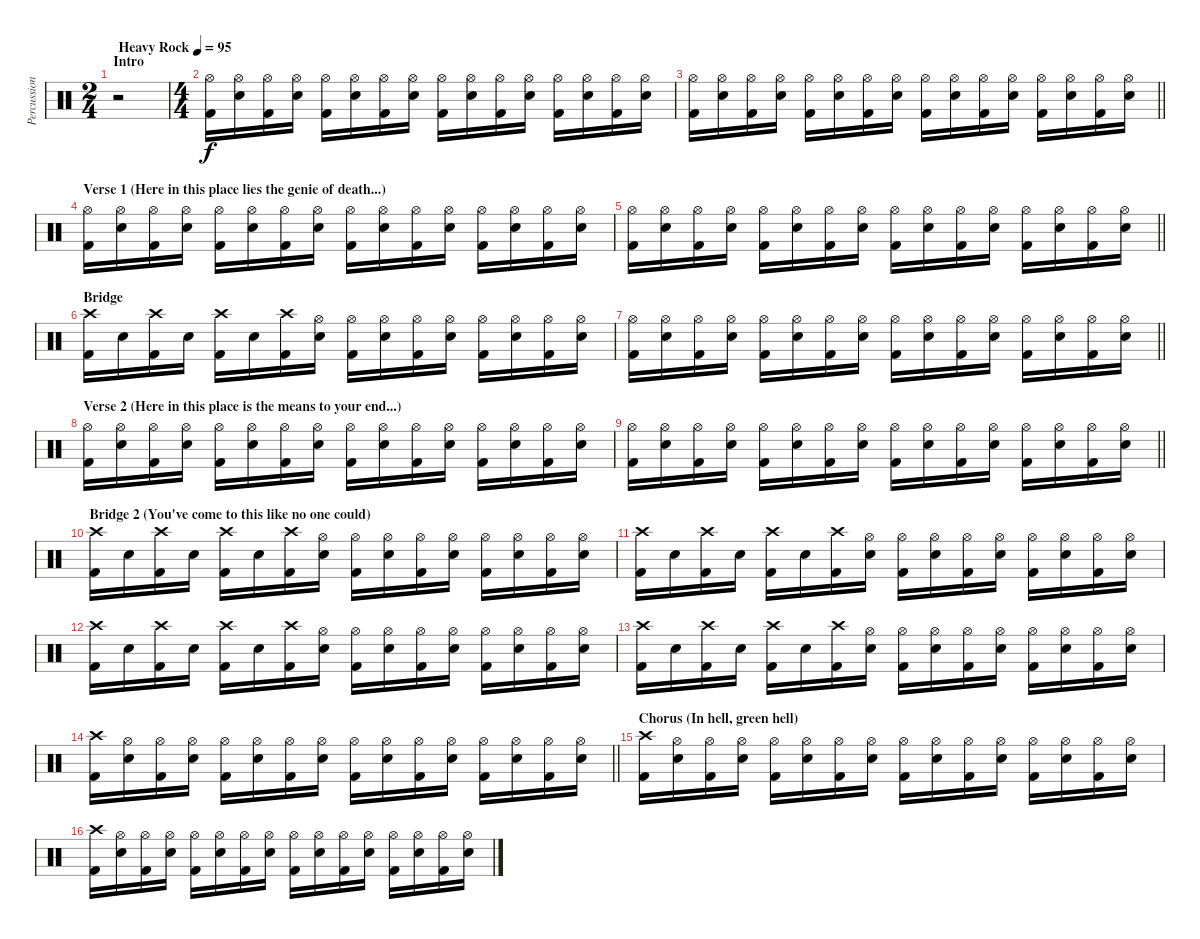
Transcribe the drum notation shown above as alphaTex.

\track ("Percussion" "Percussion") {instrument percussion}
\staff {score}
\articulation defaults
\ts (2 4)
\section ("" "Intro")
\tempo (95 "Heavy Rock")
\clef neutral
\ks c
r.2{dy f} |
\ts (4 4)
("Hi-Hat (open)" "Kick (hit) 2").16 ("Hi-Hat (open)" "Electric Snare (hit)").16 ("Hi-Hat (open)" "Kick (hit) 2").16 ("Hi-Hat (open)" "Electric Snare (hit)").16 ("Hi-Hat (open)" "Kick (hit) 2").16 ("Hi-Hat (open)" "Electric Snare (hit)").16 ("Hi-Hat (open)" "Kick (hit) 2").16 ("Hi-Hat (open)" "Electric Snare (hit)").16 ("Hi-Hat (open)" "Kick (hit) 2").16 ("Hi-Hat (open)" "Electric Snare (hit)").16 ("Hi-Hat (open)" "Kick (hit) 2").16 ("Hi-Hat (open)" "Electric Snare (hit)").16 ("Hi-Hat (open)" "Kick (hit) 2").16 ("Hi-Hat (open)" "Electric Snare (hit)").16 ("Hi-Hat (open)" "Kick (hit) 2").16 ("Hi-Hat (open)" "Electric Snare (hit)").16 |
\barLineRight lightlight
("Hi-Hat (open)" "Kick (hit) 2").16 ("Hi-Hat (open)" "Electric Snare (hit)").16 ("Hi-Hat (open)" "Kick (hit) 2").16 ("Hi-Hat (open)" "Electric Snare (hit)").16 ("Hi-Hat (open)" "Kick (hit) 2").16 ("Hi-Hat (open)" "Electric Snare (hit)").16 ("Hi-Hat (open)" "Kick (hit) 2").16 ("Hi-Hat (open)" "Electric Snare (hit)").16 ("Hi-Hat (open)" "Kick (hit) 2").16 ("Hi-Hat (open)" "Electric Snare (hit)").16 ("Hi-Hat (open)" "Kick (hit) 2").16 ("Hi-Hat (open)" "Electric Snare (hit)").16 ("Hi-Hat (open)" "Kick (hit) 2").16 ("Hi-Hat (open)" "Electric Snare (hit)").16 ("Hi-Hat (open)" "Kick (hit) 2").16 ("Hi-Hat (open)" "Electric Snare (hit)").16 |
\section ("" "Verse 1 (Here in this place lies the genie of death...)")
("Hi-Hat (open)" "Kick (hit) 2").16 ("Hi-Hat (open)" "Electric Snare (hit)").16 ("Hi-Hat (open)" "Kick (hit) 2").16 ("Hi-Hat (open)" "Electric Snare (hit)").16 ("Hi-Hat (open)" "Kick (hit) 2").16 ("Hi-Hat (open)" "Electric Snare (hit)").16 ("Hi-Hat (open)" "Kick (hit) 2").16 ("Hi-Hat (open)" "Electric Snare (hit)").16 ("Hi-Hat (open)" "Kick (hit) 2").16 ("Hi-Hat (open)" "Electric Snare (hit)").16 ("Hi-Hat (open)" "Kick (hit) 2").16 ("Hi-Hat (open)" "Electric Snare (hit)").16 ("Hi-Hat (open)" "Kick (hit) 2").16 ("Hi-Hat (open)" "Electric Snare (hit)").16 ("Hi-Hat (open)" "Kick (hit) 2").16 ("Hi-Hat (open)" "Electric Snare (hit)").16 |
\barLineRight lightlight
("Hi-Hat (open)" "Kick (hit) 2").16 ("Hi-Hat (open)" "Electric Snare (hit)").16 ("Hi-Hat (open)" "Kick (hit) 2").16 ("Hi-Hat (open)" "Electric Snare (hit)").16 ("Hi-Hat (open)" "Kick (hit) 2").16 ("Hi-Hat (open)" "Electric Snare (hit)").16 ("Hi-Hat (open)" "Kick (hit) 2").16 ("Hi-Hat (open)" "Electric Snare (hit)").16 ("Hi-Hat (open)" "Kick (hit) 2").16 ("Hi-Hat (open)" "Electric Snare (hit)").16 ("Hi-Hat (open)" "Kick (hit) 2").16 ("Hi-Hat (open)" "Electric Snare (hit)").16 ("Hi-Hat (open)" "Kick (hit) 2").16 ("Hi-Hat (open)" "Electric Snare (hit)").16 ("Hi-Hat (open)" "Kick (hit) 2").16 ("Hi-Hat (open)" "Electric Snare (hit)").16 |
\section ("" "Bridge")
("Crash high (hit)" "Kick (hit) 2").16 "Electric Snare (hit)".16 ("Crash high (hit)" "Kick (hit) 2").16 "Electric Snare (hit)".16 ("Crash high (hit)" "Kick (hit) 2").16 "Electric Snare (hit)".16 ("Crash high (hit)" "Kick (hit) 2").16 ("Hi-Hat (open)" "Electric Snare (hit)").16 ("Hi-Hat (open)" "Kick (hit) 2").16 ("Hi-Hat (open)" "Electric Snare (hit)").16 ("Hi-Hat (open)" "Kick (hit) 2").16 ("Hi-Hat (open)" "Electric Snare (hit)").16 ("Hi-Hat (open)" "Kick (hit) 2").16 ("Hi-Hat (open)" "Electric Snare (hit)").16 ("Hi-Hat (open)" "Kick (hit) 2").16 ("Hi-Hat (open)" "Electric Snare (hit)").16 |
\barLineRight lightlight
("Hi-Hat (open)" "Kick (hit) 2").16 ("Hi-Hat (open)" "Electric Snare (hit)").16 ("Hi-Hat (open)" "Kick (hit) 2").16 ("Hi-Hat (open)" "Electric Snare (hit)").16 ("Hi-Hat (open)" "Kick (hit) 2").16 ("Hi-Hat (open)" "Electric Snare (hit)").16 ("Hi-Hat (open)" "Kick (hit) 2").16 ("Hi-Hat (open)" "Electric Snare (hit)").16 ("Hi-Hat (open)" "Kick (hit) 2").16 ("Hi-Hat (open)" "Electric Snare (hit)").16 ("Hi-Hat (open)" "Kick (hit) 2").16 ("Hi-Hat (open)" "Electric Snare (hit)").16 ("Hi-Hat (open)" "Kick (hit) 2").16 ("Hi-Hat (open)" "Electric Snare (hit)").16 ("Hi-Hat (open)" "Kick (hit) 2").16 ("Hi-Hat (open)" "Electric Snare (hit)").16 |
\section ("" "Verse 2 (Here in this place is the means to your end...)")
("Hi-Hat (open)" "Kick (hit) 2").16 ("Hi-Hat (open)" "Electric Snare (hit)").16 ("Hi-Hat (open)" "Kick (hit) 2").16 ("Hi-Hat (open)" "Electric Snare (hit)").16 ("Hi-Hat (open)" "Kick (hit) 2").16 ("Hi-Hat (open)" "Electric Snare (hit)").16 ("Hi-Hat (open)" "Kick (hit) 2").16 ("Hi-Hat (open)" "Electric Snare (hit)").16 ("Hi-Hat (open)" "Kick (hit) 2").16 ("Hi-Hat (open)" "Electric Snare (hit)").16 ("Hi-Hat (open)" "Kick (hit) 2").16 ("Hi-Hat (open)" "Electric Snare (hit)").16 ("Hi-Hat (open)" "Kick (hit) 2").16 ("Hi-Hat (open)" "Electric Snare (hit)").16 ("Hi-Hat (open)" "Kick (hit) 2").16 ("Hi-Hat (open)" "Electric Snare (hit)").16 |
\barLineRight lightlight
("Hi-Hat (open)" "Kick (hit) 2").16 ("Hi-Hat (open)" "Electric Snare (hit)").16 ("Hi-Hat (open)" "Kick (hit) 2").16 ("Hi-Hat (open)" "Electric Snare (hit)").16 ("Hi-Hat (open)" "Kick (hit) 2").16 ("Hi-Hat (open)" "Electric Snare (hit)").16 ("Hi-Hat (open)" "Kick (hit) 2").16 ("Hi-Hat (open)" "Electric Snare (hit)").16 ("Hi-Hat (open)" "Kick (hit) 2").16 ("Hi-Hat (open)" "Electric Snare (hit)").16 ("Hi-Hat (open)" "Kick (hit) 2").16 ("Hi-Hat (open)" "Electric Snare (hit)").16 ("Hi-Hat (open)" "Kick (hit) 2").16 ("Hi-Hat (open)" "Electric Snare (hit)").16 ("Hi-Hat (open)" "Kick (hit) 2").16 ("Hi-Hat (open)" "Electric Snare (hit)").16 |
\section ("" "Bridge 2 (You've come to this like no one could)")
("Crash high (hit)" "Kick (hit) 2").16 "Electric Snare (hit)".16 ("Crash high (hit)" "Kick (hit) 2").16 "Electric Snare (hit)".16 ("Crash high (hit)" "Kick (hit) 2").16 "Electric Snare (hit)".16 ("Crash high (hit)" "Kick (hit) 2").16 ("Hi-Hat (open)" "Electric Snare (hit)").16 ("Hi-Hat (open)" "Kick (hit) 2").16 ("Hi-Hat (open)" "Electric Snare (hit)").16 ("Hi-Hat (open)" "Kick (hit) 2").16 ("Hi-Hat (open)" "Electric Snare (hit)").16 ("Hi-Hat (open)" "Kick (hit) 2").16 ("Hi-Hat (open)" "Electric Snare (hit)").16 ("Hi-Hat (open)" "Kick (hit) 2").16 ("Hi-Hat (open)" "Electric Snare (hit)").16 |
("Crash high (hit)" "Kick (hit) 2").16 "Electric Snare (hit)".16 ("Crash high (hit)" "Kick (hit) 2").16 "Electric Snare (hit)".16 ("Crash high (hit)" "Kick (hit) 2").16 "Electric Snare (hit)".16 ("Crash high (hit)" "Kick (hit) 2").16 ("Hi-Hat (open)" "Electric Snare (hit)").16 ("Hi-Hat (open)" "Kick (hit) 2").16 ("Hi-Hat (open)" "Electric Snare (hit)").16 ("Hi-Hat (open)" "Kick (hit) 2").16 ("Hi-Hat (open)" "Electric Snare (hit)").16 ("Hi-Hat (open)" "Kick (hit) 2").16 ("Hi-Hat (open)" "Electric Snare (hit)").16 ("Hi-Hat (open)" "Kick (hit) 2").16 ("Hi-Hat (open)" "Electric Snare (hit)").16 |
("Crash high (hit)" "Kick (hit) 2").16 "Electric Snare (hit)".16 ("Crash high (hit)" "Kick (hit) 2").16 "Electric Snare (hit)".16 ("Crash high (hit)" "Kick (hit) 2").16 "Electric Snare (hit)".16 ("Crash high (hit)" "Kick (hit) 2").16 ("Hi-Hat (open)" "Electric Snare (hit)").16 ("Hi-Hat (open)" "Kick (hit) 2").16 ("Hi-Hat (open)" "Electric Snare (hit)").16 ("Hi-Hat (open)" "Kick (hit) 2").16 ("Hi-Hat (open)" "Electric Snare (hit)").16 ("Hi-Hat (open)" "Kick (hit) 2").16 ("Hi-Hat (open)" "Electric Snare (hit)").16 ("Hi-Hat (open)" "Kick (hit) 2").16 ("Hi-Hat (open)" "Electric Snare (hit)").16 |
("Crash high (hit)" "Kick (hit) 2").16 "Electric Snare (hit)".16 ("Crash high (hit)" "Kick (hit) 2").16 "Electric Snare (hit)".16 ("Crash high (hit)" "Kick (hit) 2").16 "Electric Snare (hit)".16 ("Crash high (hit)" "Kick (hit) 2").16 ("Hi-Hat (open)" "Electric Snare (hit)").16 ("Hi-Hat (open)" "Kick (hit) 2").16 ("Hi-Hat (open)" "Electric Snare (hit)").16 ("Hi-Hat (open)" "Kick (hit) 2").16 ("Hi-Hat (open)" "Electric Snare (hit)").16 ("Hi-Hat (open)" "Kick (hit) 2").16 ("Hi-Hat (open)" "Electric Snare (hit)").16 ("Hi-Hat (open)" "Kick (hit) 2").16 ("Hi-Hat (open)" "Electric Snare (hit)").16 |
\barLineRight lightlight
("Crash high (hit)" "Kick (hit) 2").16 ("Hi-Hat (open)" "Electric Snare (hit)").16 ("Hi-Hat (open)" "Kick (hit) 2").16 ("Hi-Hat (open)" "Electric Snare (hit)").16 ("Hi-Hat (open)" "Kick (hit) 2").16 ("Hi-Hat (open)" "Electric Snare (hit)").16 ("Hi-Hat (open)" "Kick (hit) 2").16 ("Hi-Hat (open)" "Electric Snare (hit)").16 ("Hi-Hat (open)" "Kick (hit) 2").16 ("Hi-Hat (open)" "Electric Snare (hit)").16 ("Hi-Hat (open)" "Kick (hit) 2").16 ("Hi-Hat (open)" "Electric Snare (hit)").16 ("Hi-Hat (open)" "Kick (hit) 2").16 ("Hi-Hat (open)" "Electric Snare (hit)").16 ("Hi-Hat (open)" "Kick (hit) 2").16 ("Hi-Hat (open)" "Electric Snare (hit)").16 |
\section ("" "Chorus (In hell, green hell)")
("Crash high (hit)" "Kick (hit) 2").16 ("Hi-Hat (open)" "Electric Snare (hit)").16 ("Hi-Hat (open)" "Kick (hit) 2").16 ("Hi-Hat (open)" "Electric Snare (hit)").16 ("Hi-Hat (open)" "Kick (hit) 2").16 ("Hi-Hat (open)" "Electric Snare (hit)").16 ("Hi-Hat (open)" "Kick (hit) 2").16 ("Hi-Hat (open)" "Electric Snare (hit)").16 ("Hi-Hat (open)" "Kick (hit) 2").16 ("Hi-Hat (open)" "Electric Snare (hit)").16 ("Hi-Hat (open)" "Kick (hit) 2").16 ("Hi-Hat (open)" "Electric Snare (hit)").16 ("Hi-Hat (open)" "Kick (hit) 2").16 ("Hi-Hat (open)" "Electric Snare (hit)").16 ("Hi-Hat (open)" "Kick (hit) 2").16 ("Hi-Hat (open)" "Electric Snare (hit)").16 |
("Crash high (hit)" "Kick (hit) 2").16 ("Hi-Hat (open)" "Electric Snare (hit)").16 ("Hi-Hat (open)" "Kick (hit) 2").16 ("Hi-Hat (open)" "Electric Snare (hit)").16 ("Hi-Hat (open)" "Kick (hit) 2").16 ("Hi-Hat (open)" "Electric Snare (hit)").16 ("Hi-Hat (open)" "Kick (hit) 2").16 ("Hi-Hat (open)" "Electric Snare (hit)").16 ("Hi-Hat (open)" "Kick (hit) 2").16 ("Hi-Hat (open)" "Electric Snare (hit)").16 ("Hi-Hat (open)" "Kick (hit) 2").16 ("Hi-Hat (open)" "Electric Snare (hit)").16 ("Hi-Hat (open)" "Kick (hit) 2").16 ("Hi-Hat (open)" "Electric Snare (hit)").16 ("Hi-Hat (open)" "Kick (hit) 2").16 ("Hi-Hat (open)" "Electric Snare (hit)").16
